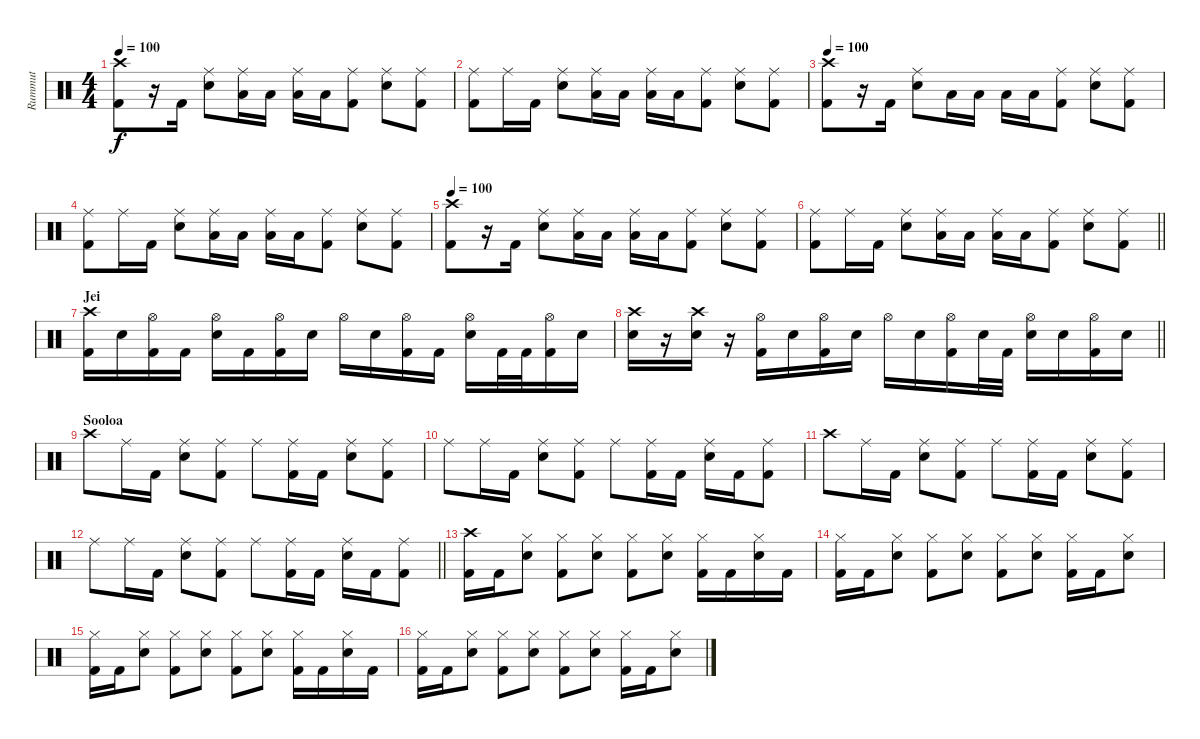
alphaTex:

\track ("Rummut" "Rummut") {instrument percussion}
\staff {score}
\articulation defaults
\ts (4 4)
\tempo 100
\clef neutral
\ks c
("Crash high (hit)" "Kick (hit) 2").8{dy f} r.16 "Kick (hit) 2".16 ("Ride (middle)" "Snare (hit) 2").8 ("Ride (middle)" "Low Floor Tom (hit)").16 "Low Floor Tom (hit)".16 ("Ride (middle)" "Low Floor Tom (hit)").16 "Low Floor Tom (hit)".16 ("Ride (middle)" "Kick (hit) 2").8 ("Ride (middle)" "Snare (hit) 2").8 ("Ride (middle)" "Kick (hit) 2").8 |
("Ride (middle)" "Kick (hit) 2").8 "Ride (middle)".16 "Kick (hit) 2".16 ("Ride (middle)" "Snare (hit) 2").8 ("Ride (middle)" "Low Floor Tom (hit)").16 "Low Floor Tom (hit)".16 ("Ride (middle)" "Low Floor Tom (hit)").16 "Low Floor Tom (hit)".16 ("Ride (middle)" "Kick (hit) 2").8 ("Ride (middle)" "Snare (hit) 2").8 ("Ride (middle)" "Kick (hit) 2").8 |
\tempo 100
("Crash high (hit)" "Kick (hit) 2").8 r.16 "Kick (hit) 2".16 ("Ride (middle)" "Snare (hit) 2").8 "Low Floor Tom (hit)".16 "Low Floor Tom (hit)".16 "Low Floor Tom (hit)".16 "Low Floor Tom (hit)".16 ("Ride (middle)" "Kick (hit) 2").8 ("Ride (middle)" "Snare (hit) 2").8 ("Ride (middle)" "Kick (hit) 2").8 |
("Ride (middle)" "Kick (hit) 2").8 "Ride (middle)".16 "Kick (hit) 2".16 ("Ride (middle)" "Snare (hit) 2").8 ("Ride (middle)" "Low Floor Tom (hit)").16 "Low Floor Tom (hit)".16 ("Ride (middle)" "Low Floor Tom (hit)").16 "Low Floor Tom (hit)".16 ("Ride (middle)" "Kick (hit) 2").8 ("Ride (middle)" "Snare (hit) 2").8 ("Ride (middle)" "Kick (hit) 2").8 |
\tempo 100
("Crash high (hit)" "Kick (hit) 2").8 r.16 "Kick (hit) 2".16 ("Ride (middle)" "Snare (hit) 2").8 ("Ride (middle)" "Low Floor Tom (hit)").16 "Low Floor Tom (hit)".16 ("Ride (middle)" "Low Floor Tom (hit)").16 "Low Floor Tom (hit)".16 ("Ride (middle)" "Kick (hit) 2").8 ("Ride (middle)" "Snare (hit) 2").8 ("Ride (middle)" "Kick (hit) 2").8 |
\barLineRight lightlight
("Ride (middle)" "Kick (hit) 2").8 "Ride (middle)".16 "Kick (hit) 2".16 ("Ride (middle)" "Snare (hit) 2").8 ("Ride (middle)" "Low Floor Tom (hit)").16 "Low Floor Tom (hit)".16 ("Ride (middle)" "Low Floor Tom (hit)").16 "Low Floor Tom (hit)".16 ("Ride (middle)" "Kick (hit) 2").8 ("Ride (middle)" "Snare (hit) 2").8 ("Ride (middle)" "Kick (hit) 2").8 |
\section ("" "Jei")
("Crash high (hit)" "Kick (hit) 2").16 "Snare (hit) 2".16 ("Hi-Hat (open)" "Kick (hit) 2").16 "Kick (hit) 2".16 ("Hi-Hat (open)" "Snare (hit) 2").16 "Kick (hit) 2".16 ("Hi-Hat (open)" "Kick (hit) 2").16 "Snare (hit) 2".16 "Hi-Hat (open)".16 "Snare (hit) 2".16 ("Hi-Hat (open)" "Kick (hit) 2").16 "Kick (hit) 2".16 ("Hi-Hat (open)" "Snare (hit) 2").16 "Kick (hit) 2".32 "Kick (hit) 2".32 ("Hi-Hat (open)" "Kick (hit) 2").16 "Snare (hit) 2".16 |
\barLineRight lightlight
("Crash high (hit)" "Snare (hit) 2").16 r.16 ("Crash high (hit)" "Snare (hit) 2").16 r.16 ("Hi-Hat (open)" "Kick (hit) 2").16 "Snare (hit) 2".16 ("Hi-Hat (open)" "Kick (hit) 2").16 "Snare (hit) 2".16 "Hi-Hat (open)".16 "Snare (hit) 2".16 ("Hi-Hat (open)" "Kick (hit) 2").16 "Snare (hit) 2".32 "Kick (hit) 2".32 ("Hi-Hat (open)" "Snare (hit) 2").16 "Snare (hit) 2".16 ("Hi-Hat (open)" "Kick (hit) 2").16 "Snare (hit) 2".16 |
\section ("" "Sooloa")
"Crash high (hit)".8 "Ride (middle)".16 "Kick (hit) 2".16 ("Ride (middle)" "Snare (hit) 2").8 ("Ride (middle)" "Kick (hit) 2").8 "Ride (middle)".8 ("Ride (middle)" "Kick (hit) 2").16 "Kick (hit) 2".16 ("Ride (middle)" "Snare (hit) 2").8 ("Ride (middle)" "Kick (hit) 2").8 |
"Ride (middle)".8 "Ride (middle)".16 "Kick (hit) 2".16 ("Ride (middle)" "Snare (hit) 2").8 ("Ride (middle)" "Kick (hit) 2").8 "Ride (middle)".8 ("Ride (middle)" "Kick (hit) 2").16 "Kick (hit) 2".16 ("Ride (middle)" "Snare (hit) 2").16 "Kick (hit) 2".16 ("Ride (middle)" "Kick (hit) 2").8 |
"Crash high (hit)".8 "Ride (middle)".16 "Kick (hit) 2".16 ("Ride (middle)" "Snare (hit) 2").8 ("Ride (middle)" "Kick (hit) 2").8 "Ride (middle)".8 ("Ride (middle)" "Kick (hit) 2").16 "Kick (hit) 2".16 ("Ride (middle)" "Snare (hit) 2").8 ("Ride (middle)" "Kick (hit) 2").8 |
\barLineRight lightlight "Ride (middle)".8 "Ride (middle)".16 "Kick (hit) 2".16
("Ride (middle)" "Snare (hit) 2").8 ("Ride (middle)" "Kick (hit) 2").8 "Ride (middle)".8 ("Ride (middle)" "Kick (hit) 2").16 "Kick (hit) 2".16 ("Ride (middle)" "Snare (hit) 2").16 "Kick (hit) 2".16 ("Ride (middle)" "Kick (hit) 2").8 |
("Crash high (hit)" "Kick (hit) 2").16 "Kick (hit) 2".16 ("Hi-Hat (closed)" "Snare (hit) 2").8 ("Hi-Hat (closed)" "Kick (hit) 2").8 ("Hi-Hat (closed)" "Snare (hit) 2").8 ("Hi-Hat (closed)" "Kick (hit) 2").8 ("Hi-Hat (closed)" "Snare (hit) 2").8 ("Hi-Hat (closed)" "Kick (hit) 2").16 "Kick (hit) 2".16 ("Hi-Hat (closed)" "Snare (hit) 2").16 "Kick (hit) 2".16 |
("Hi-Hat (closed)" "Kick (hit) 2").16 "Kick (hit) 2".16 ("Hi-Hat (closed)" "Snare (hit) 2").8 ("Hi-Hat (closed)" "Kick (hit) 2").8 ("Hi-Hat (closed)" "Snare (hit) 2").8 ("Hi-Hat (closed)" "Kick (hit) 2").8 ("Hi-Hat (closed)" "Snare (hit) 2").8 ("Hi-Hat (closed)" "Kick (hit) 2").16 "Kick (hit) 2".16 ("Hi-Hat (closed)" "Snare (hit) 2").8 |
("Hi-Hat (closed)" "Kick (hit) 2").16 "Kick (hit) 2".16 ("Hi-Hat (closed)" "Snare (hit) 2").8 ("Hi-Hat (closed)" "Kick (hit) 2").8 ("Hi-Hat (closed)" "Snare (hit) 2").8 ("Hi-Hat (closed)" "Kick (hit) 2").8 ("Hi-Hat (closed)" "Snare (hit) 2").8 ("Hi-Hat (closed)" "Kick (hit) 2").16 "Kick (hit) 2".16 ("Hi-Hat (closed)" "Snare (hit) 2").16 "Kick (hit) 2".16 |
("Hi-Hat (closed)" "Kick (hit) 2").16 "Kick (hit) 2".16 ("Hi-Hat (closed)" "Snare (hit) 2").8 ("Hi-Hat (closed)" "Kick (hit) 2").8 ("Hi-Hat (closed)" "Snare (hit) 2").8 ("Hi-Hat (closed)" "Kick (hit) 2").8 ("Hi-Hat (closed)" "Snare (hit) 2").8 ("Hi-Hat (closed)" "Kick (hit) 2").16 "Kick (hit) 2".16 ("Hi-Hat (closed)" "Snare (hit) 2").8
